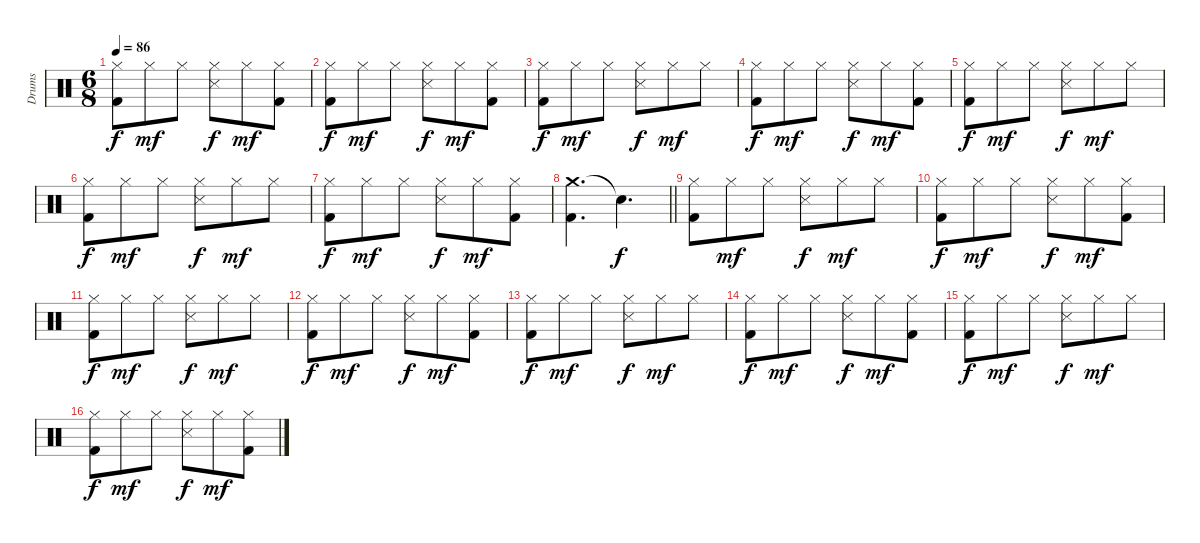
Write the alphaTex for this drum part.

\track ("Drums" "Drums") {instrument percussion}
\staff {score}
\articulation defaults
\ts (6 8)
\tempo 86
\clef neutral
\ks c
("Hi-Hat (closed)" "Kick (hit) 2").8{dy f} "Hi-Hat (closed)".8{dy mf} "Hi-Hat (closed)".8 ("Hi-Hat (closed)" "Snare (side stick) 3").8{dy f} "Hi-Hat (closed)".8{dy mf} ("Hi-Hat (closed)" "Kick (hit) 2").8 |
("Hi-Hat (closed)" "Kick (hit) 2").8{dy f} "Hi-Hat (closed)".8{dy mf} "Hi-Hat (closed)".8 ("Hi-Hat (closed)" "Snare (side stick) 3").8{dy f} "Hi-Hat (closed)".8{dy mf} ("Hi-Hat (closed)" "Kick (hit) 2").8 |
("Hi-Hat (closed)" "Kick (hit) 2").8{dy f} "Hi-Hat (closed)".8{dy mf} "Hi-Hat (closed)".8 ("Hi-Hat (closed)" "Snare (side stick) 3").8{dy f} "Hi-Hat (closed)".8{dy mf} "Hi-Hat (closed)".8 |
("Hi-Hat (closed)" "Kick (hit) 2").8{dy f} "Hi-Hat (closed)".8{dy mf} "Hi-Hat (closed)".8 ("Hi-Hat (closed)" "Snare (side stick) 3").8{dy f} "Hi-Hat (closed)".8{dy mf} ("Hi-Hat (closed)" "Kick (hit) 2").8 |
("Hi-Hat (closed)" "Kick (hit) 2").8{dy f} "Hi-Hat (closed)".8{dy mf} "Hi-Hat (closed)".8 ("Hi-Hat (closed)" "Snare (side stick) 3").8{dy f} "Hi-Hat (closed)".8{dy mf} "Hi-Hat (closed)".8 |
("Hi-Hat (closed)" "Kick (hit) 2").8{dy f} "Hi-Hat (closed)".8{dy mf} "Hi-Hat (closed)".8 ("Hi-Hat (closed)" "Snare (side stick) 3").8{dy f} "Hi-Hat (closed)".8{dy mf} "Hi-Hat (closed)".8 |
("Hi-Hat (closed)" "Kick (hit) 2").8{dy f} "Hi-Hat (closed)".8{dy mf} "Hi-Hat (closed)".8 ("Hi-Hat (closed)" "Snare (side stick) 3").8{dy f} "Hi-Hat (closed)".8{dy mf} ("Hi-Hat (closed)" "Kick (hit) 2").8 |
\barLineRight lightlight
("Crash medium (hit)" "Kick (hit) 2").4{d} "Snare (hit)"{t}.4{d dy f} |
("Hi-Hat (closed)" "Kick (hit) 2").8 "Hi-Hat (closed)".8{dy mf} "Hi-Hat (closed)".8 ("Hi-Hat (closed)" "Snare (side stick) 3").8{dy f} "Hi-Hat (closed)".8{dy mf} "Hi-Hat (closed)".8 |
("Hi-Hat (closed)" "Kick (hit) 2").8{dy f} "Hi-Hat (closed)".8{dy mf} "Hi-Hat (closed)".8 ("Hi-Hat (closed)" "Snare (side stick) 3").8{dy f} "Hi-Hat (closed)".8{dy mf} ("Hi-Hat (closed)" "Kick (hit) 2").8 |
("Hi-Hat (closed)" "Kick (hit) 2").8{dy f} "Hi-Hat (closed)".8{dy mf} "Hi-Hat (closed)".8 ("Hi-Hat (closed)" "Snare (side stick) 3").8{dy f} "Hi-Hat (closed)".8{dy mf} "Hi-Hat (closed)".8 |
("Hi-Hat (closed)" "Kick (hit) 2").8{dy f} "Hi-Hat (closed)".8{dy mf} "Hi-Hat (closed)".8 ("Hi-Hat (closed)" "Snare (side stick) 3").8{dy f} "Hi-Hat (closed)".8{dy mf} ("Hi-Hat (closed)" "Kick (hit) 2").8 |
("Hi-Hat (closed)" "Kick (hit) 2").8{dy f} "Hi-Hat (closed)".8{dy mf} "Hi-Hat (closed)".8 ("Hi-Hat (closed)" "Snare (side stick) 3").8{dy f} "Hi-Hat (closed)".8{dy mf} "Hi-Hat (closed)".8 |
("Hi-Hat (closed)" "Kick (hit) 2").8{dy f} "Hi-Hat (closed)".8{dy mf} "Hi-Hat (closed)".8 ("Hi-Hat (closed)" "Snare (side stick) 3").8{dy f} "Hi-Hat (closed)".8{dy mf} ("Hi-Hat (closed)" "Kick (hit) 2").8 |
("Hi-Hat (closed)" "Kick (hit) 2").8{dy f} "Hi-Hat (closed)".8{dy mf} "Hi-Hat (closed)".8 ("Hi-Hat (closed)" "Snare (side stick) 3").8{dy f} "Hi-Hat (closed)".8{dy mf} "Hi-Hat (closed)".8 |
("Hi-Hat (closed)" "Kick (hit) 2").8{dy f} "Hi-Hat (closed)".8{dy mf} "Hi-Hat (closed)".8 ("Hi-Hat (closed)" "Snare (side stick) 3").8{dy f} "Hi-Hat (closed)".8{dy mf} ("Hi-Hat (closed)" "Kick (hit) 2").8
